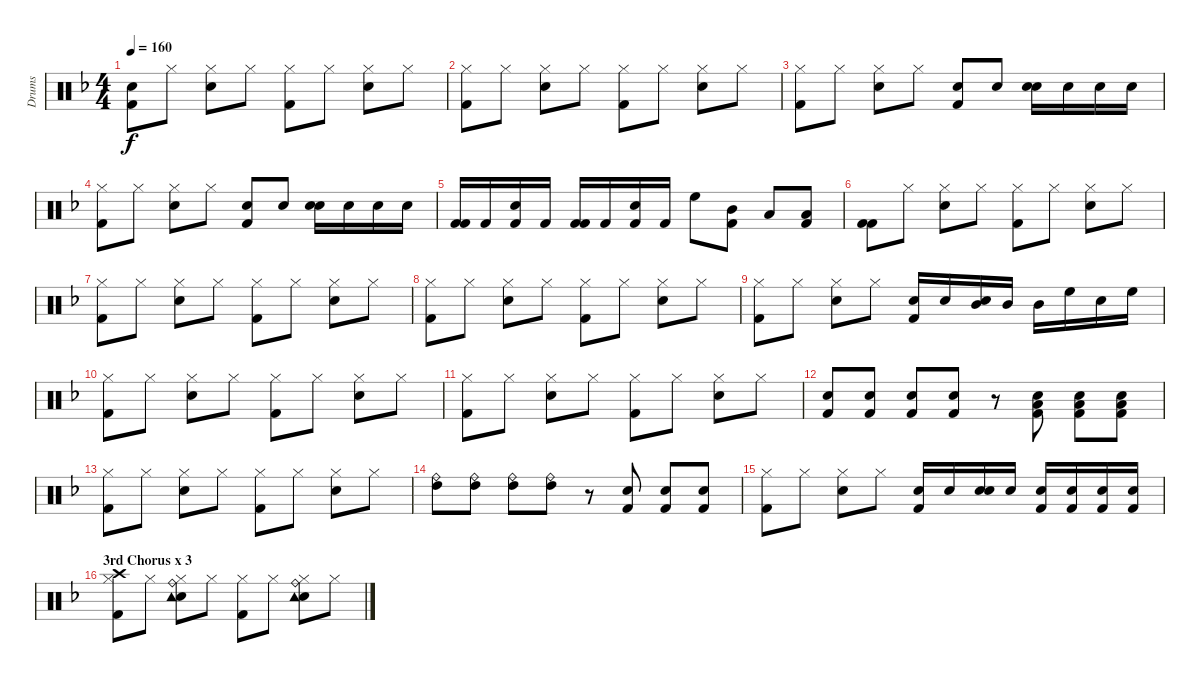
\track ("Drums" "Drums") {instrument percussion}
\staff {score}
\articulation defaults
\ts (4 4)
\tempo 160
\clef neutral
\ks dminor
("Snare (hit) 2" "Kick (hit) 2").8{dy f} "Hi-Hat (closed)".8 ("Hi-Hat (closed)" "Electric Snare (hit)").8 "Hi-Hat (closed)".8 ("Hi-Hat (closed)" "Kick (hit) 2").8 "Hi-Hat (closed)".8 ("Hi-Hat (closed)" "Electric Snare (hit)").8 "Hi-Hat (closed)".8 |
("Hi-Hat (closed)" "Kick (hit) 2").8 "Hi-Hat (closed)".8 ("Hi-Hat (closed)" "Electric Snare (hit)").8 "Hi-Hat (closed)".8 ("Hi-Hat (closed)" "Kick (hit) 2").8 "Hi-Hat (closed)".8 ("Hi-Hat (closed)" "Electric Snare (hit)").8 "Hi-Hat (closed)".8 |
("Hi-Hat (closed)" "Kick (hit) 2").8 "Hi-Hat (closed)".8 ("Hi-Hat (closed)" "Electric Snare (hit)").8 "Hi-Hat (closed)".8 ("Snare (hit) 2" "Kick (hit) 2").8 "Snare (hit) 2".8 ("Snare (hit) 2" "Electric Snare (hit)").16 "Snare (hit) 2".16 "Snare (hit) 2".16 "Snare (hit) 2".16 |
("Hi-Hat (closed)" "Kick (hit) 2").8 "Hi-Hat (closed)".8 ("Hi-Hat (closed)" "Electric Snare (hit)").8 "Hi-Hat (closed)".8 ("Snare (hit) 2" "Kick (hit) 2").8 "Snare (hit) 2".8 ("Snare (hit) 2" "Electric Snare (hit)").16 "Snare (hit) 2".16 "Snare (hit) 2".16 "Snare (hit) 2".16 |
("Kick (hit) 2" "Kick (hit) 2").16 "Kick (hit) 2".16 ("Kick (hit) 2" "Electric Snare (hit)").16 "Kick (hit) 2".16 ("Kick (hit) 2" "Kick (hit) 2").16 "Kick (hit) 2".16 ("Kick (hit) 2" "Electric Snare (hit)").16 "Kick (hit) 2".16 "High Floor Tom (hit)".8 ("Mid Tom (hit)" "Kick (hit) 2").8 "Low Tom (hit)".8 ("Low Floor Tom (hit)" "Kick (hit) 2").8 |
("Kick (hit) 2" "Kick (hit) 2").8 "Hi-Hat (closed)".8 ("Hi-Hat (closed)" "Electric Snare (hit)").8 "Hi-Hat (closed)".8 ("Hi-Hat (closed)" "Kick (hit) 2").8 "Hi-Hat (closed)".8 ("Hi-Hat (closed)" "Electric Snare (hit)").8 "Hi-Hat (closed)".8 |
("Hi-Hat (closed)" "Kick (hit) 2").8 "Hi-Hat (closed)".8 ("Hi-Hat (closed)" "Electric Snare (hit)").8 "Hi-Hat (closed)".8 ("Hi-Hat (closed)" "Kick (hit) 2").8 "Hi-Hat (closed)".8 ("Hi-Hat (closed)" "Electric Snare (hit)").8 "Hi-Hat (closed)".8 |
("Hi-Hat (closed)" "Kick (hit) 2").8 "Hi-Hat (closed)".8 ("Hi-Hat (closed)" "Electric Snare (hit)").8 "Hi-Hat (closed)".8 ("Hi-Hat (closed)" "Kick (hit) 2").8 "Hi-Hat (closed)".8 ("Hi-Hat (closed)" "Electric Snare (hit)").8 "Hi-Hat (closed)".8 |
("Hi-Hat (closed)" "Kick (hit) 2").8 "Hi-Hat (closed)".8 ("Hi-Hat (closed)" "Electric Snare (hit)").8 "Hi-Hat (closed)".8 ("Snare (hit) 2" "Kick (hit) 2").16 "Snare (hit) 2".16 ("Mid Tom (hit)" "Electric Snare (hit)").16 "Mid Tom (hit)".16 "Mid Tom (hit)".16 "High Floor Tom (hit)".16 "Snare (hit) 2".16 "High Floor Tom (hit)".16 |
("Hi-Hat (closed)" "Kick (hit) 2").8 "Hi-Hat (closed)".8 ("Hi-Hat (closed)" "Electric Snare (hit)").8 "Hi-Hat (closed)".8 ("Hi-Hat (closed)" "Kick (hit) 2").8 "Hi-Hat (closed)".8 ("Hi-Hat (closed)" "Electric Snare (hit)").8 "Hi-Hat (closed)".8 |
("Hi-Hat (closed)" "Kick (hit) 2").8 "Hi-Hat (closed)".8 ("Hi-Hat (closed)" "Electric Snare (hit)").8 "Hi-Hat (closed)".8 ("Hi-Hat (closed)" "Kick (hit) 2").8 "Hi-Hat (closed)".8 ("Hi-Hat (closed)" "Electric Snare (hit)").8 "Hi-Hat (closed)".8 |
("Snare (hit) 2" "Kick (hit) 2").8 ("Snare (hit) 2" "Kick (hit) 2").8 ("Snare (hit) 2" "Kick (hit) 2").8 ("Snare (hit) 2" "Kick (hit) 2").8 r.8 ("Low Tom (hit)" "Kick (hit) 2" "Snare (hit) 2").8 ("Low Tom (hit)" "Kick (hit) 2" "Snare (hit) 2").8 ("Low Tom (hit)" "Kick (hit) 2" "Snare (hit) 2").8 |
("Hi-Hat (closed)" "Kick (hit) 2").8 "Hi-Hat (closed)".8 ("Hi-Hat (closed)" "Electric Snare (hit)").8 "Hi-Hat (closed)".8 ("Hi-Hat (closed)" "Kick (hit) 2").8 "Hi-Hat (closed)".8 ("Hi-Hat (closed)" "Electric Snare (hit)").8 "Hi-Hat (closed)".8 |
("Ride (bell)" "High Tom (hit)").8 ("Ride (bell)" "High Tom (hit)").8 ("Ride (bell)" "High Tom (hit)").8 ("Ride (bell)" "High Tom (hit)").8 r.8 ("Kick (hit) 2" "Snare (hit) 2").8 ("Kick (hit) 2" "Snare (hit) 2").8 ("Kick (hit) 2" "Snare (hit) 2").8 |
("Hi-Hat (closed)" "Kick (hit) 2").8 "Hi-Hat (closed)".8 ("Hi-Hat (closed)" "Electric Snare (hit)").8 "Hi-Hat (closed)".8 ("Snare (hit) 2" "Kick (hit) 2").16 "Snare (hit) 2".16 ("Snare (hit) 2" "Electric Snare (hit)").16 "Snare (hit) 2".16 ("Snare (hit) 2" "Kick (hit) 2").16 ("Snare (hit) 2" "Kick (hit) 2").16 ("Snare (hit) 2" "Kick (hit) 2").16 ("Snare (hit) 2" "Kick (hit) 2").16 |
\section ("" "3rd Chorus x 3")
("Hi-Hat (closed)" "Crash high (hit)" "Kick (hit) 2").8 "Hi-Hat (closed)".8 ("Hi-Hat (closed)" "Electric Snare (hit)" "Tambourine (hit)" "Ride (bell)").8 "Hi-Hat (closed)".8 ("Hi-Hat (closed)" "Kick (hit) 2").8 "Hi-Hat (closed)".8 ("Hi-Hat (closed)" "Electric Snare (hit)" "Tambourine (hit)" "Ride (bell)").8 "Hi-Hat (closed)".8
